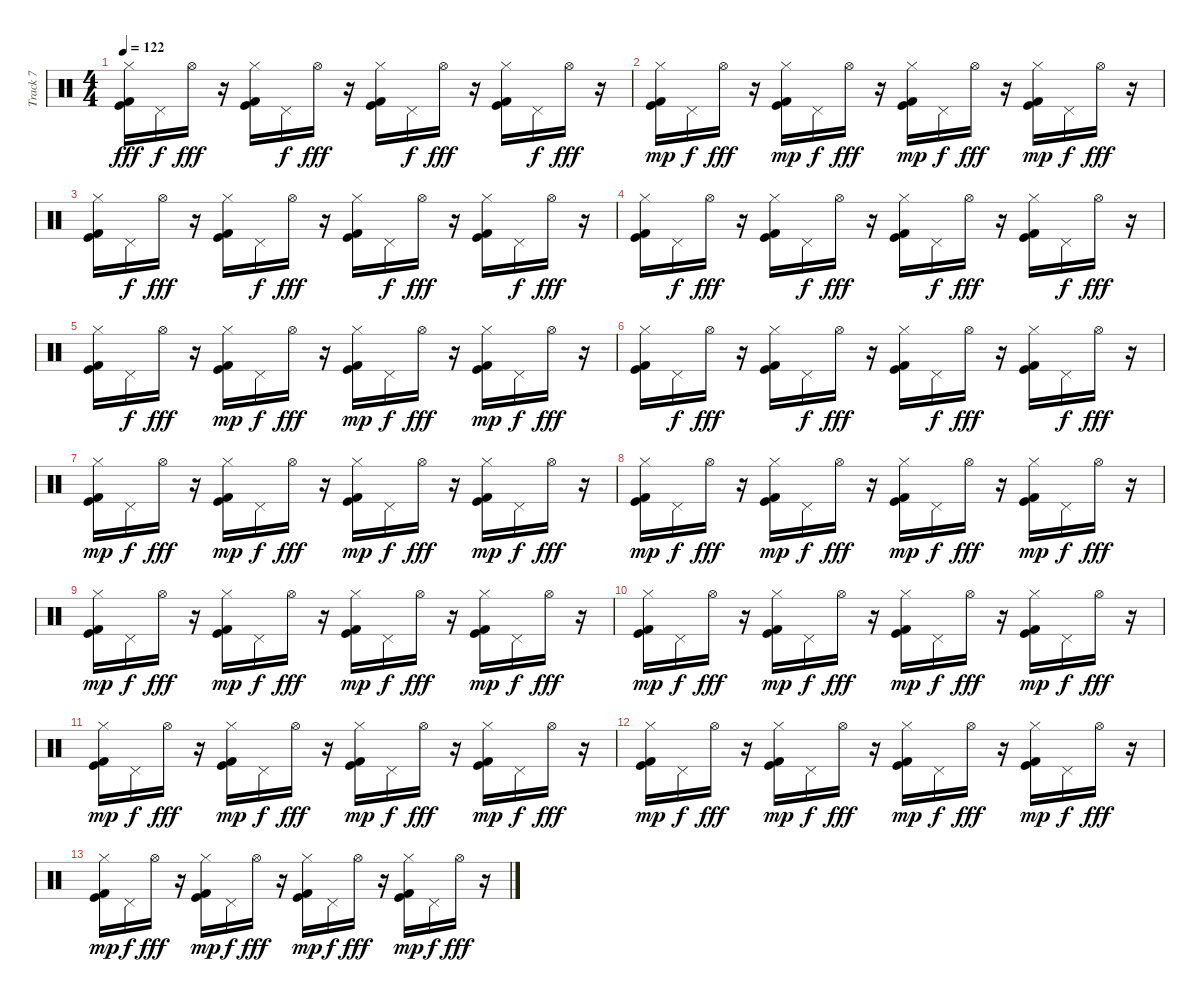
\track ("Track 7" "Track 7") {instrument percussion}
\staff {score}
\articulation defaults
\ts (4 4)
\tempo 122
\clef neutral
\ks c
("Kick (hit)" "Hi-Hat (closed)" "Kick (hit) 2").16{dy fff} "Pedal Hi-Hat (hit)".16{dy f} "Hi-Hat (open)".16{dy fff} r.16 ("Hi-Hat (closed)" "Kick (hit)" "Kick (hit) 2").16 "Pedal Hi-Hat (hit)".16{dy f} "Hi-Hat (open)".16{dy fff} r.16 ("Hi-Hat (closed)" "Kick (hit)" "Kick (hit) 2").16 "Pedal Hi-Hat (hit)".16{dy f} "Hi-Hat (open)".16{dy fff} r.16 ("Hi-Hat (closed)" "Kick (hit)" "Kick (hit) 2").16 "Pedal Hi-Hat (hit)".16{dy f} "Hi-Hat (open)".16{dy fff} r.16 |
("Kick (hit)" "Kick (hit) 2" "Hi-Hat (closed)").16{dy mp} "Pedal Hi-Hat (hit)".16{dy f} "Hi-Hat (open)".16{dy fff} r.16 ("Kick (hit) 2" "Kick (hit)" "Hi-Hat (closed)").16{dy mp} "Pedal Hi-Hat (hit)".16{dy f} "Hi-Hat (open)".16{dy fff} r.16 ("Kick (hit) 2" "Kick (hit)" "Hi-Hat (closed)").16{dy mp} "Pedal Hi-Hat (hit)".16{dy f} "Hi-Hat (open)".16{dy fff} r.16 ("Kick (hit) 2" "Kick (hit)" "Hi-Hat (closed)").16{dy mp} "Pedal Hi-Hat (hit)".16{dy f} "Hi-Hat (open)".16{dy fff} r.16 |
("Hi-Hat (closed)" "Kick (hit) 2" "Kick (hit)").16 "Pedal Hi-Hat (hit)".16{dy f} "Hi-Hat (open)".16{dy fff} r.16 ("Hi-Hat (closed)" "Kick (hit)" "Kick (hit) 2").16 "Pedal Hi-Hat (hit)".16{dy f} "Hi-Hat (open)".16{dy fff} r.16 ("Hi-Hat (closed)" "Kick (hit)" "Kick (hit) 2").16 "Pedal Hi-Hat (hit)".16{dy f} "Hi-Hat (open)".16{dy fff} r.16 ("Hi-Hat (closed)" "Kick (hit)" "Kick (hit) 2").16 "Pedal Hi-Hat (hit)".16{dy f} "Hi-Hat (open)".16{dy fff} r.16 |
("Kick (hit)" "Hi-Hat (closed)" "Kick (hit) 2").16 "Pedal Hi-Hat (hit)".16{dy f} "Hi-Hat (open)".16{dy fff} r.16 ("Hi-Hat (closed)" "Kick (hit)" "Kick (hit) 2").16 "Pedal Hi-Hat (hit)".16{dy f} "Hi-Hat (open)".16{dy fff} r.16 ("Hi-Hat (closed)" "Kick (hit)" "Kick (hit) 2").16 "Pedal Hi-Hat (hit)".16{dy f} "Hi-Hat (open)".16{dy fff} r.16 ("Hi-Hat (closed)" "Kick (hit)" "Kick (hit) 2").16 "Pedal Hi-Hat (hit)".16{dy f} "Hi-Hat (open)".16{dy fff} r.16 |
("Kick (hit) 2" "Hi-Hat (closed)" "Kick (hit)").16 "Pedal Hi-Hat (hit)".16{dy f} "Hi-Hat (open)".16{dy fff} r.16 ("Kick (hit) 2" "Kick (hit)" "Hi-Hat (closed)").16{dy mp} "Pedal Hi-Hat (hit)".16{dy f} "Hi-Hat (open)".16{dy fff} r.16 ("Kick (hit) 2" "Kick (hit)" "Hi-Hat (closed)").16{dy mp} "Pedal Hi-Hat (hit)".16{dy f} "Hi-Hat (open)".16{dy fff} r.16 ("Kick (hit) 2" "Kick (hit)" "Hi-Hat (closed)").16{dy mp} "Pedal Hi-Hat (hit)".16{dy f} "Hi-Hat (open)".16{dy fff} r.16 |
("Hi-Hat (closed)" "Kick (hit) 2" "Kick (hit)").16 "Pedal Hi-Hat (hit)".16{dy f} "Hi-Hat (open)".16{dy fff} r.16 ("Hi-Hat (closed)" "Kick (hit)" "Kick (hit) 2").16 "Pedal Hi-Hat (hit)".16{dy f} "Hi-Hat (open)".16{dy fff} r.16 ("Hi-Hat (closed)" "Kick (hit)" "Kick (hit) 2").16 "Pedal Hi-Hat (hit)".16{dy f} "Hi-Hat (open)".16{dy fff} r.16 ("Hi-Hat (closed)" "Kick (hit)" "Kick (hit) 2").16 "Pedal Hi-Hat (hit)".16{dy f} "Hi-Hat (open)".16{dy fff} r.16 |
("Kick (hit)" "Kick (hit) 2" "Hi-Hat (closed)").16{dy mp} "Pedal Hi-Hat (hit)".16{dy f} "Hi-Hat (open)".16{dy fff} r.16 ("Kick (hit) 2" "Kick (hit)" "Hi-Hat (closed)").16{dy mp} "Pedal Hi-Hat (hit)".16{dy f} "Hi-Hat (open)".16{dy fff} r.16 ("Kick (hit) 2" "Kick (hit)" "Hi-Hat (closed)").16{dy mp} "Pedal Hi-Hat (hit)".16{dy f} "Hi-Hat (open)".16{dy fff} r.16 ("Kick (hit) 2" "Kick (hit)" "Hi-Hat (closed)").16{dy mp} "Pedal Hi-Hat (hit)".16{dy f} "Hi-Hat (open)".16{dy fff} r.16 |
("Kick (hit)" "Kick (hit) 2" "Hi-Hat (closed)").16{dy mp} "Pedal Hi-Hat (hit)".16{dy f} "Hi-Hat (open)".16{dy fff} r.16 ("Kick (hit) 2" "Kick (hit)" "Hi-Hat (closed)").16{dy mp} "Pedal Hi-Hat (hit)".16{dy f} "Hi-Hat (open)".16{dy fff} r.16 ("Kick (hit) 2" "Kick (hit)" "Hi-Hat (closed)").16{dy mp} "Pedal Hi-Hat (hit)".16{dy f} "Hi-Hat (open)".16{dy fff} r.16 ("Kick (hit) 2" "Kick (hit)" "Hi-Hat (closed)").16{dy mp} "Pedal Hi-Hat (hit)".16{dy f} "Hi-Hat (open)".16{dy fff} r.16 |
("Kick (hit)" "Kick (hit) 2" "Hi-Hat (closed)").16{dy mp} "Pedal Hi-Hat (hit)".16{dy f} "Hi-Hat (open)".16{dy fff} r.16 ("Kick (hit) 2" "Kick (hit)" "Hi-Hat (closed)").16{dy mp} "Pedal Hi-Hat (hit)".16{dy f} "Hi-Hat (open)".16{dy fff} r.16 ("Kick (hit) 2" "Kick (hit)" "Hi-Hat (closed)").16{dy mp} "Pedal Hi-Hat (hit)".16{dy f} "Hi-Hat (open)".16{dy fff} r.16 ("Kick (hit) 2" "Kick (hit)" "Hi-Hat (closed)").16{dy mp} "Pedal Hi-Hat (hit)".16{dy f} "Hi-Hat (open)".16{dy fff} r.16 |
("Kick (hit)" "Kick (hit) 2" "Hi-Hat (closed)").16{dy mp} "Pedal Hi-Hat (hit)".16{dy f} "Hi-Hat (open)".16{dy fff} r.16 ("Kick (hit) 2" "Kick (hit)" "Hi-Hat (closed)").16{dy mp} "Pedal Hi-Hat (hit)".16{dy f} "Hi-Hat (open)".16{dy fff} r.16 ("Kick (hit) 2" "Kick (hit)" "Hi-Hat (closed)").16{dy mp} "Pedal Hi-Hat (hit)".16{dy f} "Hi-Hat (open)".16{dy fff} r.16 ("Kick (hit) 2" "Kick (hit)" "Hi-Hat (closed)").16{dy mp} "Pedal Hi-Hat (hit)".16{dy f} "Hi-Hat (open)".16{dy fff} r.16 |
("Kick (hit)" "Kick (hit) 2" "Hi-Hat (closed)").16{dy mp} "Pedal Hi-Hat (hit)".16{dy f} "Hi-Hat (open)".16{dy fff} r.16 ("Kick (hit) 2" "Kick (hit)" "Hi-Hat (closed)").16{dy mp} "Pedal Hi-Hat (hit)".16{dy f} "Hi-Hat (open)".16{dy fff} r.16 ("Kick (hit) 2" "Kick (hit)" "Hi-Hat (closed)").16{dy mp} "Pedal Hi-Hat (hit)".16{dy f} "Hi-Hat (open)".16{dy fff} r.16 ("Kick (hit) 2" "Kick (hit)" "Hi-Hat (closed)").16{dy mp} "Pedal Hi-Hat (hit)".16{dy f} "Hi-Hat (open)".16{dy fff} r.16 |
("Kick (hit)" "Kick (hit) 2" "Hi-Hat (closed)").16{dy mp} "Pedal Hi-Hat (hit)".16{dy f} "Hi-Hat (open)".16{dy fff} r.16 ("Kick (hit) 2" "Kick (hit)" "Hi-Hat (closed)").16{dy mp} "Pedal Hi-Hat (hit)".16{dy f} "Hi-Hat (open)".16{dy fff} r.16 ("Kick (hit) 2" "Kick (hit)" "Hi-Hat (closed)").16{dy mp} "Pedal Hi-Hat (hit)".16{dy f} "Hi-Hat (open)".16{dy fff} r.16 ("Kick (hit) 2" "Kick (hit)" "Hi-Hat (closed)").16{dy mp} "Pedal Hi-Hat (hit)".16{dy f} "Hi-Hat (open)".16{dy fff} r.16 |
("Kick (hit)" "Kick (hit) 2" "Hi-Hat (closed)").16{dy mp} "Pedal Hi-Hat (hit)".16{dy f} "Hi-Hat (open)".16{dy fff} r.16 ("Kick (hit) 2" "Kick (hit)" "Hi-Hat (closed)").16{dy mp} "Pedal Hi-Hat (hit)".16{dy f} "Hi-Hat (open)".16{dy fff} r.16 ("Kick (hit) 2" "Kick (hit)" "Hi-Hat (closed)").16{dy mp} "Pedal Hi-Hat (hit)".16{dy f} "Hi-Hat (open)".16{dy fff} r.16 ("Kick (hit) 2" "Kick (hit)" "Hi-Hat (closed)").16{dy mp} "Pedal Hi-Hat (hit)".16{dy f} "Hi-Hat (open)".16{dy fff} r.16
